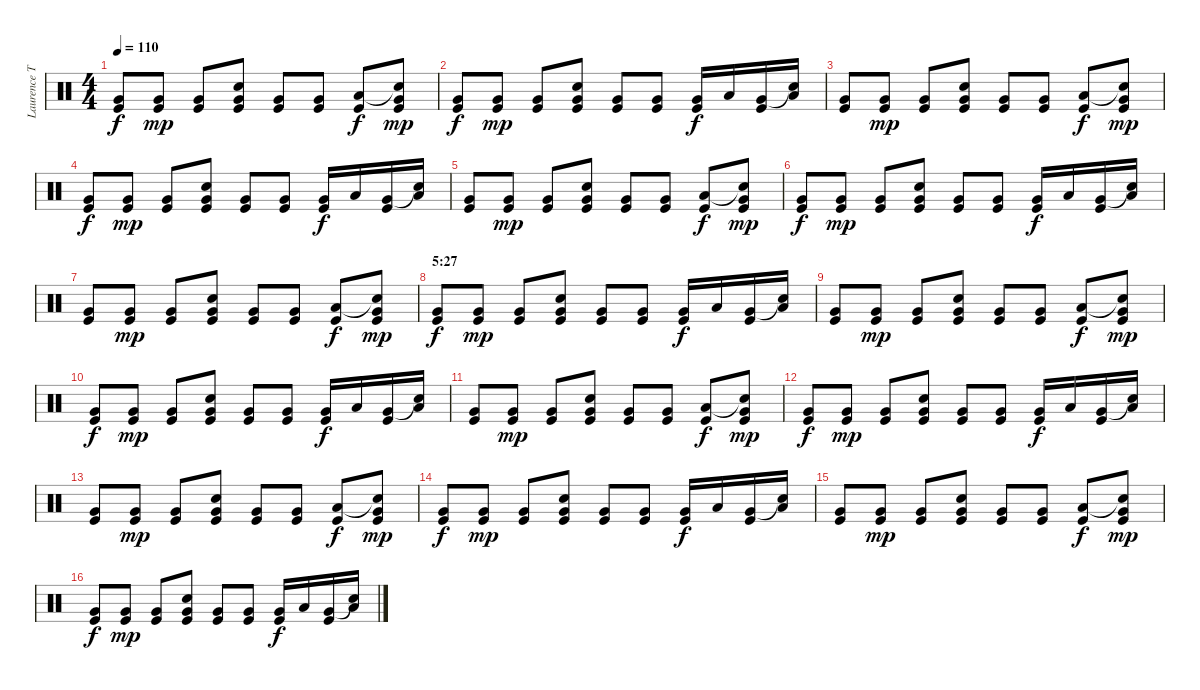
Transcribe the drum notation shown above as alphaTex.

\track ("Laurence Tolhurst (drums)" "Laurence T") {instrument percussion}
\staff {score}
\articulation defaults
\ts (4 4)
\tempo 110
\clef neutral
\ks c
("Very Low Tom (hit)" "Kick (hit)").8{dy f} ("Very Low Tom (hit)" "Kick (hit)").8{dy mp} ("Very Low Tom (hit)" "Kick (hit)").8 ("Snare (hit) 2" "Very Low Tom (hit)" "Kick (hit)").8 ("Very Low Tom (hit)" "Kick (hit)").8 ("Very Low Tom (hit)" "Kick (hit)").8 ("Low Tom (hit)" "Kick (hit)").8{dy f} ("Snare (hit)"{t} "Very Low Tom (hit)" "Kick (hit)").8{dy mp} |
("Very Low Tom (hit)" "Kick (hit)").8{dy f} ("Very Low Tom (hit)" "Kick (hit)").8{dy mp} ("Very Low Tom (hit)" "Kick (hit)").8 ("Snare (hit) 2" "Very Low Tom (hit)" "Kick (hit)").8 ("Very Low Tom (hit)" "Kick (hit)").8 ("Very Low Tom (hit)" "Kick (hit)").8 ("Very Low Tom (hit)" "Kick (hit)").16{dy f} "Low Tom (hit)".16 ("Very Low Tom (hit)" "Kick (hit)").16 ("Snare (hit)"{t} "Low Tom (hit)").16 |
("Very Low Tom (hit)" "Kick (hit)").8 ("Very Low Tom (hit)" "Kick (hit)").8{dy mp} ("Very Low Tom (hit)" "Kick (hit)").8 ("Snare (hit) 2" "Very Low Tom (hit)" "Kick (hit)").8 ("Very Low Tom (hit)" "Kick (hit)").8 ("Very Low Tom (hit)" "Kick (hit)").8 ("Low Tom (hit)" "Kick (hit)").8{dy f} ("Snare (hit)"{t} "Very Low Tom (hit)" "Kick (hit)").8{dy mp} |
("Very Low Tom (hit)" "Kick (hit)").8{dy f} ("Very Low Tom (hit)" "Kick (hit)").8{dy mp} ("Very Low Tom (hit)" "Kick (hit)").8 ("Snare (hit) 2" "Very Low Tom (hit)" "Kick (hit)").8 ("Very Low Tom (hit)" "Kick (hit)").8 ("Very Low Tom (hit)" "Kick (hit)").8 ("Very Low Tom (hit)" "Kick (hit)").16{dy f} "Low Tom (hit)".16 ("Very Low Tom (hit)" "Kick (hit)").16 ("Snare (hit)"{t} "Low Tom (hit)").16 |
("Very Low Tom (hit)" "Kick (hit)").8 ("Very Low Tom (hit)" "Kick (hit)").8{dy mp} ("Very Low Tom (hit)" "Kick (hit)").8 ("Snare (hit) 2" "Very Low Tom (hit)" "Kick (hit)").8 ("Very Low Tom (hit)" "Kick (hit)").8 ("Very Low Tom (hit)" "Kick (hit)").8 ("Low Tom (hit)" "Kick (hit)").8{dy f} ("Snare (hit)"{t} "Very Low Tom (hit)" "Kick (hit)").8{dy mp} |
("Very Low Tom (hit)" "Kick (hit)").8{dy f} ("Very Low Tom (hit)" "Kick (hit)").8{dy mp} ("Very Low Tom (hit)" "Kick (hit)").8 ("Snare (hit) 2" "Very Low Tom (hit)" "Kick (hit)").8 ("Very Low Tom (hit)" "Kick (hit)").8 ("Very Low Tom (hit)" "Kick (hit)").8 ("Very Low Tom (hit)" "Kick (hit)").16{dy f} "Low Tom (hit)".16 ("Very Low Tom (hit)" "Kick (hit)").16 ("Snare (hit)"{t} "Low Tom (hit)").16 |
("Very Low Tom (hit)" "Kick (hit)").8 ("Very Low Tom (hit)" "Kick (hit)").8{dy mp} ("Very Low Tom (hit)" "Kick (hit)").8 ("Snare (hit) 2" "Very Low Tom (hit)" "Kick (hit)").8 ("Very Low Tom (hit)" "Kick (hit)").8 ("Very Low Tom (hit)" "Kick (hit)").8 ("Low Tom (hit)" "Kick (hit)").8{dy f} ("Snare (hit)"{t} "Very Low Tom (hit)" "Kick (hit)").8{dy mp} |
\section ("" "5:27")
("Very Low Tom (hit)" "Kick (hit)").8{dy f} ("Very Low Tom (hit)" "Kick (hit)").8{dy mp} ("Very Low Tom (hit)" "Kick (hit)").8 ("Snare (hit) 2" "Very Low Tom (hit)" "Kick (hit)").8 ("Very Low Tom (hit)" "Kick (hit)").8 ("Very Low Tom (hit)" "Kick (hit)").8 ("Very Low Tom (hit)" "Kick (hit)").16{dy f} "Low Tom (hit)".16 ("Very Low Tom (hit)" "Kick (hit)").16 ("Snare (hit)"{t} "Low Tom (hit)").16 |
("Very Low Tom (hit)" "Kick (hit)").8 ("Very Low Tom (hit)" "Kick (hit)").8{dy mp} ("Very Low Tom (hit)" "Kick (hit)").8 ("Snare (hit) 2" "Very Low Tom (hit)" "Kick (hit)").8 ("Very Low Tom (hit)" "Kick (hit)").8 ("Very Low Tom (hit)" "Kick (hit)").8 ("Low Tom (hit)" "Kick (hit)").8{dy f} ("Snare (hit)"{t} "Very Low Tom (hit)" "Kick (hit)").8{dy mp} |
("Very Low Tom (hit)" "Kick (hit)").8{dy f} ("Very Low Tom (hit)" "Kick (hit)").8{dy mp} ("Very Low Tom (hit)" "Kick (hit)").8 ("Snare (hit) 2" "Very Low Tom (hit)" "Kick (hit)").8 ("Very Low Tom (hit)" "Kick (hit)").8 ("Very Low Tom (hit)" "Kick (hit)").8 ("Very Low Tom (hit)" "Kick (hit)").16{dy f} "Low Tom (hit)".16 ("Very Low Tom (hit)" "Kick (hit)").16 ("Snare (hit)"{t} "Low Tom (hit)").16 |
("Very Low Tom (hit)" "Kick (hit)").8 ("Very Low Tom (hit)" "Kick (hit)").8{dy mp} ("Very Low Tom (hit)" "Kick (hit)").8 ("Snare (hit) 2" "Very Low Tom (hit)" "Kick (hit)").8 ("Very Low Tom (hit)" "Kick (hit)").8 ("Very Low Tom (hit)" "Kick (hit)").8 ("Low Tom (hit)" "Kick (hit)").8{dy f} ("Snare (hit)"{t} "Very Low Tom (hit)" "Kick (hit)").8{dy mp} |
("Very Low Tom (hit)" "Kick (hit)").8{dy f} ("Very Low Tom (hit)" "Kick (hit)").8{dy mp} ("Very Low Tom (hit)" "Kick (hit)").8 ("Snare (hit) 2" "Very Low Tom (hit)" "Kick (hit)").8 ("Very Low Tom (hit)" "Kick (hit)").8 ("Very Low Tom (hit)" "Kick (hit)").8 ("Very Low Tom (hit)" "Kick (hit)").16{dy f} "Low Tom (hit)".16 ("Very Low Tom (hit)" "Kick (hit)").16 ("Snare (hit)"{t} "Low Tom (hit)").16 |
("Very Low Tom (hit)" "Kick (hit)").8 ("Very Low Tom (hit)" "Kick (hit)").8{dy mp} ("Very Low Tom (hit)" "Kick (hit)").8 ("Snare (hit) 2" "Very Low Tom (hit)" "Kick (hit)").8 ("Very Low Tom (hit)" "Kick (hit)").8 ("Very Low Tom (hit)" "Kick (hit)").8 ("Low Tom (hit)" "Kick (hit)").8{dy f} ("Snare (hit)"{t} "Very Low Tom (hit)" "Kick (hit)").8{dy mp} |
("Very Low Tom (hit)" "Kick (hit)").8{dy f} ("Very Low Tom (hit)" "Kick (hit)").8{dy mp} ("Very Low Tom (hit)" "Kick (hit)").8 ("Snare (hit) 2" "Very Low Tom (hit)" "Kick (hit)").8 ("Very Low Tom (hit)" "Kick (hit)").8 ("Very Low Tom (hit)" "Kick (hit)").8 ("Very Low Tom (hit)" "Kick (hit)").16{dy f} "Low Tom (hit)".16 ("Very Low Tom (hit)" "Kick (hit)").16 ("Snare (hit)"{t} "Low Tom (hit)").16 |
("Very Low Tom (hit)" "Kick (hit)").8 ("Very Low Tom (hit)" "Kick (hit)").8{dy mp} ("Very Low Tom (hit)" "Kick (hit)").8 ("Snare (hit) 2" "Very Low Tom (hit)" "Kick (hit)").8 ("Very Low Tom (hit)" "Kick (hit)").8 ("Very Low Tom (hit)" "Kick (hit)").8 ("Low Tom (hit)" "Kick (hit)").8{dy f} ("Snare (hit)"{t} "Very Low Tom (hit)" "Kick (hit)").8{dy mp} |
("Very Low Tom (hit)" "Kick (hit)").8{dy f} ("Very Low Tom (hit)" "Kick (hit)").8{dy mp} ("Very Low Tom (hit)" "Kick (hit)").8 ("Snare (hit) 2" "Very Low Tom (hit)" "Kick (hit)").8 ("Very Low Tom (hit)" "Kick (hit)").8 ("Very Low Tom (hit)" "Kick (hit)").8 ("Very Low Tom (hit)" "Kick (hit)").16{dy f} "Low Tom (hit)".16 ("Very Low Tom (hit)" "Kick (hit)").16 ("Snare (hit)"{t} "Low Tom (hit)").16
